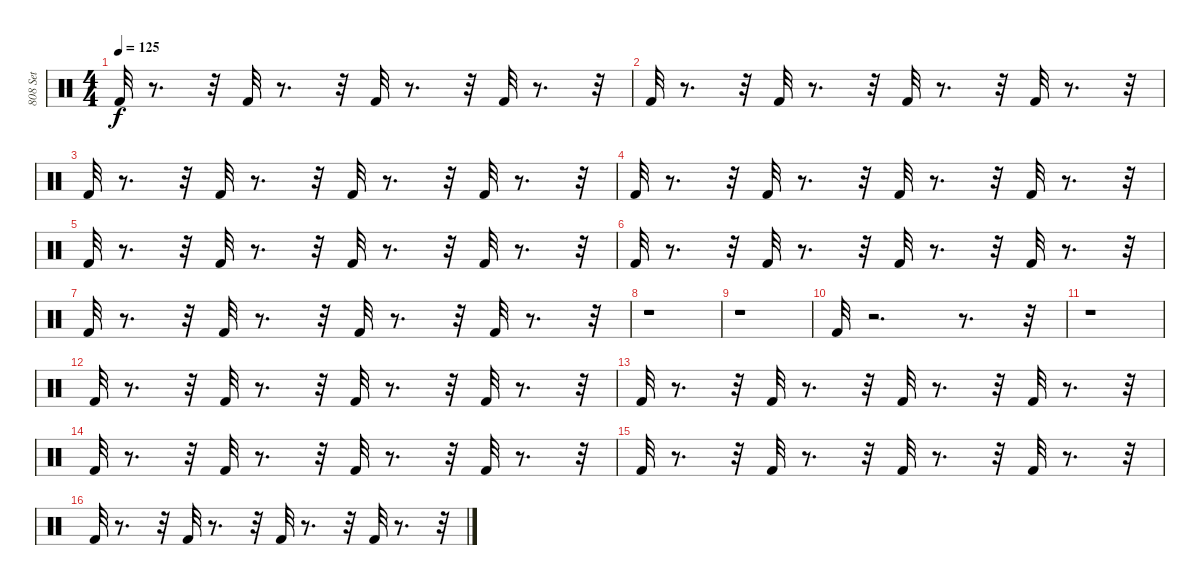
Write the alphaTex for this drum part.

\track ("808 Set" "808 Set") {instrument percussion}
\staff {score}
\articulation defaults
\ts (4 4)
\tempo 125
\clef neutral
\ks c "Kick (hit) 2".32{dy f}
r.8{d} r.32 "Kick (hit) 2".32 r.8{d} r.32 "Kick (hit) 2".32 r.8{d} r.32 "Kick (hit) 2".32 r.8{d} r.32 |
"Kick (hit) 2".32 r.8{d} r.32 "Kick (hit) 2".32 r.8{d} r.32 "Kick (hit) 2".32 r.8{d} r.32 "Kick (hit) 2".32 r.8{d} r.32 |
"Kick (hit) 2".32 r.8{d} r.32 "Kick (hit) 2".32 r.8{d} r.32 "Kick (hit) 2".32 r.8{d} r.32 "Kick (hit) 2".32 r.8{d} r.32 |
"Kick (hit) 2".32 r.8{d} r.32 "Kick (hit) 2".32 r.8{d} r.32 "Kick (hit) 2".32 r.8{d} r.32 "Kick (hit) 2".32 r.8{d} r.32 |
"Kick (hit) 2".32 r.8{d} r.32 "Kick (hit) 2".32 r.8{d} r.32 "Kick (hit) 2".32 r.8{d} r.32 "Kick (hit) 2".32 r.8{d} r.32 |
"Kick (hit) 2".32 r.8{d} r.32 "Kick (hit) 2".32 r.8{d} r.32 "Kick (hit) 2".32 r.8{d} r.32 "Kick (hit) 2".32 r.8{d} r.32 |
"Kick (hit) 2".32 r.8{d} r.32 "Kick (hit) 2".32 r.8{d} r.32 "Kick (hit) 2".32 r.8{d} r.32 "Kick (hit) 2".32 r.8{d} r.32 |
r.1 |
r.1 |
"Kick (hit) 2".32 r.2{d} r.8{d} r.32 |
r.1 |
"Kick (hit) 2".32 r.8{d} r.32 "Kick (hit) 2".32 r.8{d} r.32 "Kick (hit) 2".32 r.8{d} r.32 "Kick (hit) 2".32 r.8{d} r.32 |
"Kick (hit) 2".32 r.8{d} r.32 "Kick (hit) 2".32 r.8{d} r.32 "Kick (hit) 2".32 r.8{d} r.32 "Kick (hit) 2".32 r.8{d} r.32 |
"Kick (hit) 2".32 r.8{d} r.32 "Kick (hit) 2".32 r.8{d} r.32 "Kick (hit) 2".32 r.8{d} r.32 "Kick (hit) 2".32 r.8{d} r.32 |
"Kick (hit) 2".32 r.8{d} r.32 "Kick (hit) 2".32 r.8{d} r.32 "Kick (hit) 2".32 r.8{d} r.32 "Kick (hit) 2".32 r.8{d} r.32 |
"Kick (hit) 2".32 r.8{d} r.32 "Kick (hit) 2".32 r.8{d} r.32 "Kick (hit) 2".32 r.8{d} r.32 "Kick (hit) 2".32 r.8{d} r.32
